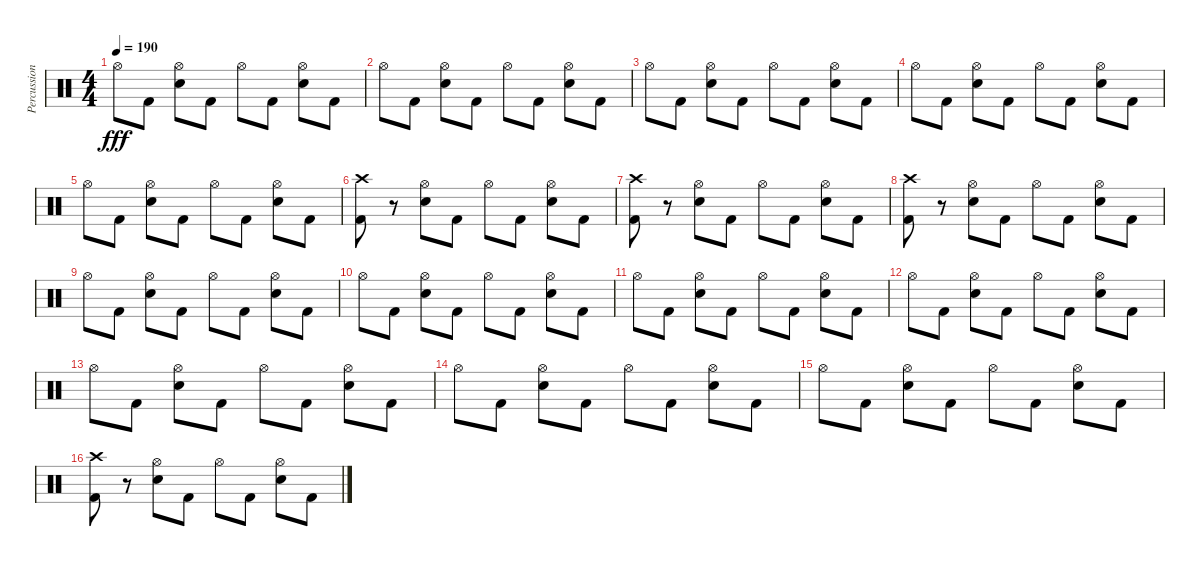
\track ("Percussion" "Percussion") {instrument percussion}
\staff {score}
\articulation defaults
\ts (4 4)
\tempo 190
\clef neutral
\ks c "Hi-Hat (open)".8{dy fff} "Kick (hit) 2".8
("Hi-Hat (open)" "Electric Snare (hit)").8 "Kick (hit) 2".8 "Hi-Hat (open)".8 "Kick (hit) 2".8 ("Hi-Hat (open)" "Electric Snare (hit)").8 "Kick (hit) 2".8 |
"Hi-Hat (open)".8 "Kick (hit) 2".8 ("Hi-Hat (open)" "Electric Snare (hit)").8 "Kick (hit) 2".8 "Hi-Hat (open)".8 "Kick (hit) 2".8 ("Hi-Hat (open)" "Electric Snare (hit)").8 "Kick (hit) 2".8 |
"Hi-Hat (open)".8 "Kick (hit) 2".8 ("Hi-Hat (open)" "Electric Snare (hit)").8 "Kick (hit) 2".8 "Hi-Hat (open)".8 "Kick (hit) 2".8 ("Hi-Hat (open)" "Electric Snare (hit)").8 "Kick (hit) 2".8 |
"Hi-Hat (open)".8 "Kick (hit) 2".8 ("Hi-Hat (open)" "Electric Snare (hit)").8 "Kick (hit) 2".8 "Hi-Hat (open)".8 "Kick (hit) 2".8 ("Hi-Hat (open)" "Electric Snare (hit)").8 "Kick (hit) 2".8 |
"Hi-Hat (open)".8 "Kick (hit) 2".8 ("Hi-Hat (open)" "Electric Snare (hit)").8 "Kick (hit) 2".8 "Hi-Hat (open)".8 "Kick (hit) 2".8 ("Hi-Hat (open)" "Electric Snare (hit)").8 "Kick (hit) 2".8 |
("Crash high (hit)" "Kick (hit) 2").8 r.8 ("Hi-Hat (open)" "Electric Snare (hit)").8 "Kick (hit) 2".8 "Hi-Hat (open)".8 "Kick (hit) 2".8 ("Hi-Hat (open)" "Electric Snare (hit)").8 "Kick (hit) 2".8 |
("Crash high (hit)" "Kick (hit) 2").8 r.8 ("Hi-Hat (open)" "Electric Snare (hit)").8 "Kick (hit) 2".8 "Hi-Hat (open)".8 "Kick (hit) 2".8 ("Hi-Hat (open)" "Electric Snare (hit)").8 "Kick (hit) 2".8 |
("Crash high (hit)" "Kick (hit) 2").8 r.8 ("Hi-Hat (open)" "Electric Snare (hit)").8 "Kick (hit) 2".8 "Hi-Hat (open)".8 "Kick (hit) 2".8 ("Hi-Hat (open)" "Electric Snare (hit)").8 "Kick (hit) 2".8 |
"Hi-Hat (open)".8 "Kick (hit) 2".8 ("Hi-Hat (open)" "Electric Snare (hit)").8 "Kick (hit) 2".8 "Hi-Hat (open)".8 "Kick (hit) 2".8 ("Hi-Hat (open)" "Electric Snare (hit)").8 "Kick (hit) 2".8 |
"Hi-Hat (open)".8 "Kick (hit) 2".8 ("Hi-Hat (open)" "Electric Snare (hit)").8 "Kick (hit) 2".8 "Hi-Hat (open)".8 "Kick (hit) 2".8 ("Hi-Hat (open)" "Electric Snare (hit)").8 "Kick (hit) 2".8 |
"Hi-Hat (open)".8 "Kick (hit) 2".8 ("Hi-Hat (open)" "Electric Snare (hit)").8 "Kick (hit) 2".8 "Hi-Hat (open)".8 "Kick (hit) 2".8 ("Hi-Hat (open)" "Electric Snare (hit)").8 "Kick (hit) 2".8 |
"Hi-Hat (open)".8 "Kick (hit) 2".8 ("Hi-Hat (open)" "Electric Snare (hit)").8 "Kick (hit) 2".8 "Hi-Hat (open)".8 "Kick (hit) 2".8 ("Hi-Hat (open)" "Electric Snare (hit)").8 "Kick (hit) 2".8 |
"Hi-Hat (open)".8 "Kick (hit) 2".8 ("Hi-Hat (open)" "Electric Snare (hit)").8 "Kick (hit) 2".8 "Hi-Hat (open)".8 "Kick (hit) 2".8 ("Hi-Hat (open)" "Electric Snare (hit)").8 "Kick (hit) 2".8 |
"Hi-Hat (open)".8 "Kick (hit) 2".8 ("Hi-Hat (open)" "Electric Snare (hit)").8 "Kick (hit) 2".8 "Hi-Hat (open)".8 "Kick (hit) 2".8 ("Hi-Hat (open)" "Electric Snare (hit)").8 "Kick (hit) 2".8 |
"Hi-Hat (open)".8 "Kick (hit) 2".8 ("Hi-Hat (open)" "Electric Snare (hit)").8 "Kick (hit) 2".8 "Hi-Hat (open)".8 "Kick (hit) 2".8 ("Hi-Hat (open)" "Electric Snare (hit)").8 "Kick (hit) 2".8 |
("Crash high (hit)" "Kick (hit) 2").8 r.8 ("Hi-Hat (open)" "Electric Snare (hit)").8 "Kick (hit) 2".8 "Hi-Hat (open)".8 "Kick (hit) 2".8 ("Hi-Hat (open)" "Electric Snare (hit)").8 "Kick (hit) 2".8
